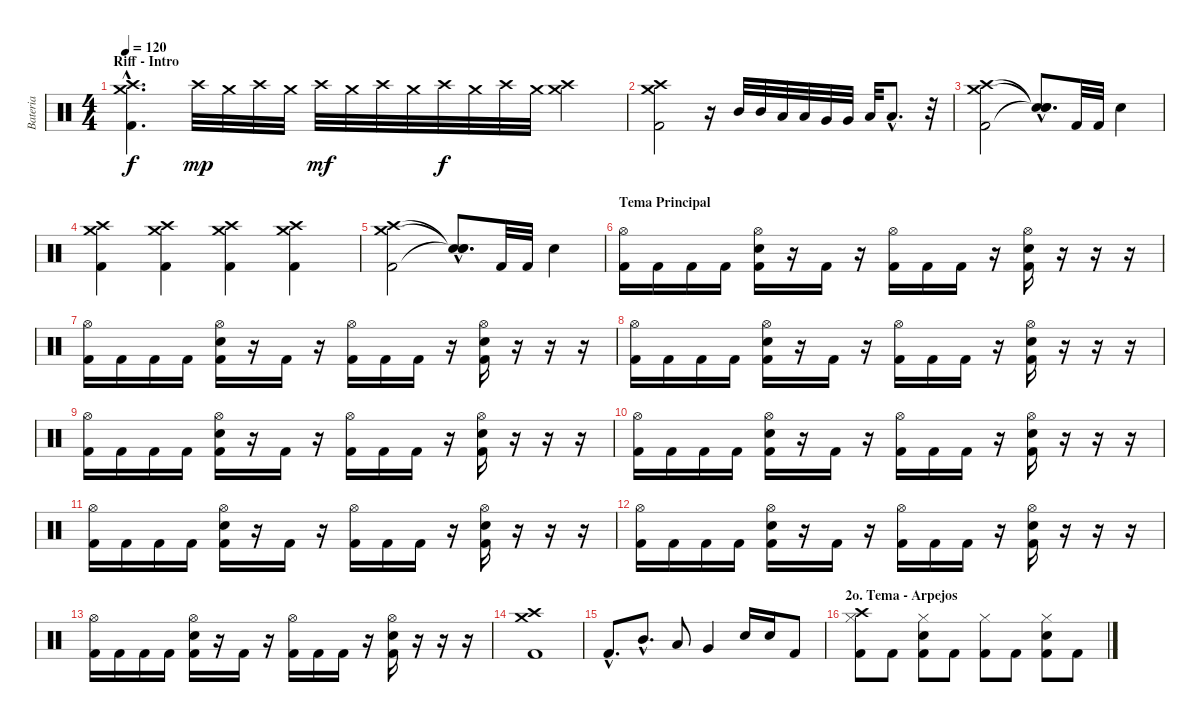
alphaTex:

\track ("Bateria" "Bateria") {instrument percussion}
\staff {score}
\articulation defaults
\ts (4 4)
\section ("" "Riff - Intro")
\tempo 120
\clef neutral
\ks c
("Kick (hit) 2"{hac} "Crash medium (hit)"{hac} "Crash high (hit)"{hac}).4{d dy f} "Crash high (hit)".32{dy mp} "Crash medium (hit)".32 "Crash high (hit)".32 "Crash medium (hit)".32 "Crash high (hit)".32{dy mf} "Crash medium (hit)".32 "Crash high (hit)".32 "Crash medium (hit)".32 "Crash high (hit)".32{dy f} "Crash medium (hit)".32 "Crash high (hit)".32 "Crash medium (hit)".32 ("Crash medium (hit)" "Crash high (hit)").4 |
("Kick (hit) 2" "Crash medium (hit)" "Crash high (hit)").2 r.16 "Mid Tom (hit)".32 "Mid Tom (hit)".32 "Low Tom (hit)".32 "Low Tom (hit)".32 "Very Low Tom (hit)".32 "Very Low Tom (hit)".32 "Low Floor Tom (hit)".32 "Low Floor Tom (hit)"{hac}.8{d} r.32 |
("Kick (hit) 2" "Crash medium (hit)" "Crash high (hit)").2 ("Snare (hit)"{hac t} "Snare (hit)"{hac t} "Snare (hit)"{hac t}).8{d} "Kick (hit) 2".32 "Kick (hit) 2".32 "Snare (hit) 2".4 |
("Kick (hit) 2" "Crash medium (hit)" "Crash high (hit)").4 ("Kick (hit) 2" "Crash medium (hit)" "Crash high (hit)").4 ("Kick (hit) 2" "Crash medium (hit)" "Crash high (hit)").4 ("Kick (hit) 2" "Crash medium (hit)" "Crash high (hit)").4 |
("Kick (hit) 2" "Crash medium (hit)" "Crash high (hit)").2 ("Snare (hit)"{hac t} "Snare (hit)"{hac t} "Snare (hit)"{hac t}).8{d} "Kick (hit) 2".32 "Kick (hit) 2".32 "Snare (hit) 2".4 |
\section ("" "Tema Principal")
("Hi-Hat (open)" "Kick (hit) 2").16 "Kick (hit) 2".16 "Kick (hit) 2".16 "Kick (hit) 2".16 ("Hi-Hat (open)" "Snare (hit) 2" "Kick (hit) 2").16 r.16 "Kick (hit) 2".16 r.16 ("Hi-Hat (open)" "Kick (hit) 2").16 "Kick (hit) 2".16 "Kick (hit) 2".16 r.16 ("Hi-Hat (open)" "Snare (hit) 2" "Kick (hit) 2").16 r.16 r.16 r.16 |
("Hi-Hat (open)" "Kick (hit) 2").16 "Kick (hit) 2".16 "Kick (hit) 2".16 "Kick (hit) 2".16 ("Hi-Hat (open)" "Snare (hit) 2" "Kick (hit) 2").16 r.16 "Kick (hit) 2".16 r.16 ("Hi-Hat (open)" "Kick (hit) 2").16 "Kick (hit) 2".16 "Kick (hit) 2".16 r.16 ("Hi-Hat (open)" "Snare (hit) 2" "Kick (hit) 2").16 r.16 r.16 r.16 |
("Hi-Hat (open)" "Kick (hit) 2").16 "Kick (hit) 2".16 "Kick (hit) 2".16 "Kick (hit) 2".16 ("Hi-Hat (open)" "Snare (hit) 2" "Kick (hit) 2").16 r.16 "Kick (hit) 2".16 r.16 ("Hi-Hat (open)" "Kick (hit) 2").16 "Kick (hit) 2".16 "Kick (hit) 2".16 r.16 ("Hi-Hat (open)" "Snare (hit) 2" "Kick (hit) 2").16 r.16 r.16 r.16 |
("Hi-Hat (open)" "Kick (hit) 2").16 "Kick (hit) 2".16 "Kick (hit) 2".16 "Kick (hit) 2".16 ("Hi-Hat (open)" "Snare (hit) 2" "Kick (hit) 2").16 r.16 "Kick (hit) 2".16 r.16 ("Hi-Hat (open)" "Kick (hit) 2").16 "Kick (hit) 2".16 "Kick (hit) 2".16 r.16 ("Hi-Hat (open)" "Snare (hit) 2" "Kick (hit) 2").16 r.16 r.16 r.16 |
("Hi-Hat (open)" "Kick (hit) 2").16 "Kick (hit) 2".16 "Kick (hit) 2".16 "Kick (hit) 2".16 ("Hi-Hat (open)" "Snare (hit) 2" "Kick (hit) 2").16 r.16 "Kick (hit) 2".16 r.16 ("Hi-Hat (open)" "Kick (hit) 2").16 "Kick (hit) 2".16 "Kick (hit) 2".16 r.16 ("Hi-Hat (open)" "Snare (hit) 2" "Kick (hit) 2").16 r.16 r.16 r.16 |
("Hi-Hat (open)" "Kick (hit) 2").16 "Kick (hit) 2".16 "Kick (hit) 2".16 "Kick (hit) 2".16 ("Hi-Hat (open)" "Snare (hit) 2" "Kick (hit) 2").16 r.16 "Kick (hit) 2".16 r.16 ("Hi-Hat (open)" "Kick (hit) 2").16 "Kick (hit) 2".16 "Kick (hit) 2".16 r.16 ("Hi-Hat (open)" "Snare (hit) 2" "Kick (hit) 2").16 r.16 r.16 r.16 |
("Hi-Hat (open)" "Kick (hit) 2").16 "Kick (hit) 2".16 "Kick (hit) 2".16 "Kick (hit) 2".16 ("Hi-Hat (open)" "Snare (hit) 2" "Kick (hit) 2").16 r.16 "Kick (hit) 2".16 r.16 ("Hi-Hat (open)" "Kick (hit) 2").16 "Kick (hit) 2".16 "Kick (hit) 2".16 r.16 ("Hi-Hat (open)" "Snare (hit) 2" "Kick (hit) 2").16 r.16 r.16 r.16 |
("Hi-Hat (open)" "Kick (hit) 2").16 "Kick (hit) 2".16 "Kick (hit) 2".16 "Kick (hit) 2".16 ("Hi-Hat (open)" "Snare (hit) 2" "Kick (hit) 2").16 r.16 "Kick (hit) 2".16 r.16 ("Hi-Hat (open)" "Kick (hit) 2").16 "Kick (hit) 2".16 "Kick (hit) 2".16 r.16 ("Hi-Hat (open)" "Snare (hit) 2" "Kick (hit) 2").16 r.16 r.16 r.16 |
("Kick (hit) 2" "Crash medium (hit)" "Crash high (hit)").1 |
"Kick (hit) 2"{hac}.8{d} "Mid Tom (hit)"{hac}.8{d} "Low Tom (hit)".8 "Very Low Tom (hit)".4 "Snare (hit) 2".16 "Snare (hit) 2".16 "Kick (hit) 2".8 |
\section ("" "2o. Tema - Arpejos")
("Hi-Hat (closed)" "Kick (hit) 2" "Crash high (hit)").8 "Kick (hit) 2".8 ("Hi-Hat (closed)" "Snare (hit) 2" "Kick (hit) 2").8 "Kick (hit) 2".8 ("Hi-Hat (closed)" "Kick (hit) 2").8 "Kick (hit) 2".8 ("Hi-Hat (closed)" "Snare (hit) 2" "Kick (hit) 2").8 "Kick (hit) 2".8
